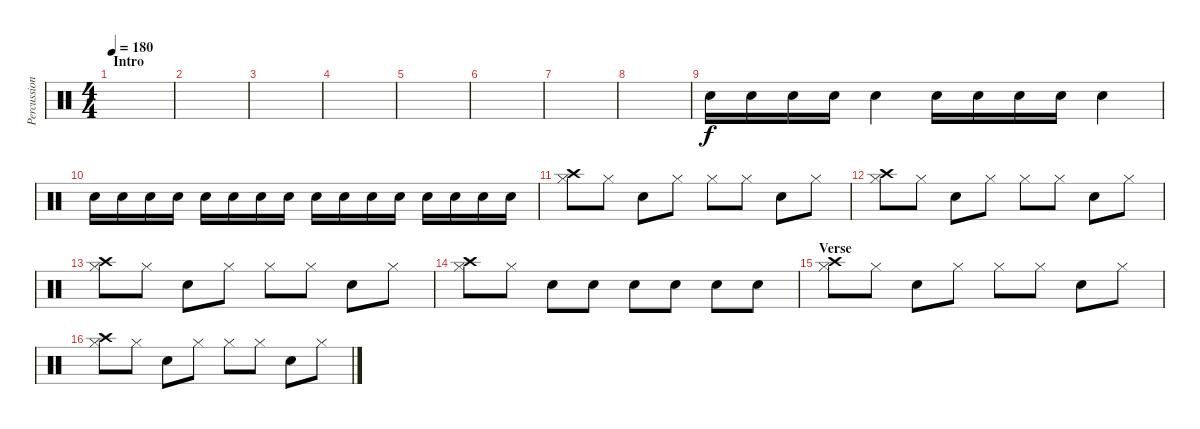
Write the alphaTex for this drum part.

\track ("Percussion" "Percussion") {instrument percussion}
\staff {score}
\articulation defaults
\ts (4 4)
\section ("" "Intro")
\tempo 180
\clef neutral
\ks c
|
|
|
|
|
|
|
|
"Electric Snare (hit)".16 "Electric Snare (hit)".16 "Electric Snare (hit)".16 "Electric Snare (hit)".16 "Electric Snare (hit)".4 "Electric Snare (hit)".16 "Electric Snare (hit)".16 "Electric Snare (hit)".16 "Electric Snare (hit)".16 "Electric Snare (hit)".4 |
"Electric Snare (hit)".16 "Electric Snare (hit)".16 "Electric Snare (hit)".16 "Electric Snare (hit)".16 "Electric Snare (hit)".16 "Electric Snare (hit)".16 "Electric Snare (hit)".16 "Electric Snare (hit)".16 "Electric Snare (hit)".16 "Electric Snare (hit)".16 "Electric Snare (hit)".16 "Electric Snare (hit)".16 "Electric Snare (hit)".16 "Electric Snare (hit)".16 "Electric Snare (hit)".16 "Electric Snare (hit)".16 |
("Crash high (hit)" "Hi-Hat (closed)").8 "Hi-Hat (closed)".8 "Electric Snare (hit)".8 "Hi-Hat (closed)".8 "Hi-Hat (closed)".8 "Hi-Hat (closed)".8 "Electric Snare (hit)".8 "Hi-Hat (closed)".8 |
("Crash high (hit)" "Hi-Hat (closed)").8 "Hi-Hat (closed)".8 "Electric Snare (hit)".8 "Hi-Hat (closed)".8 "Hi-Hat (closed)".8 "Hi-Hat (closed)".8 "Electric Snare (hit)".8 "Hi-Hat (closed)".8 |
("Crash high (hit)" "Hi-Hat (closed)").8 "Hi-Hat (closed)".8 "Electric Snare (hit)".8 "Hi-Hat (closed)".8 "Hi-Hat (closed)".8 "Hi-Hat (closed)".8 "Electric Snare (hit)".8 "Hi-Hat (closed)".8 |
("Crash high (hit)" "Hi-Hat (closed)").8 "Hi-Hat (closed)".8 "Electric Snare (hit)".8 "Electric Snare (hit)".8 "Electric Snare (hit)".8 "Electric Snare (hit)".8 "Electric Snare (hit)".8 "Electric Snare (hit)".8 |
\section ("" "Verse")
("Crash high (hit)" "Hi-Hat (closed)").8 "Hi-Hat (closed)".8 "Electric Snare (hit)".8 "Hi-Hat (closed)".8 "Hi-Hat (closed)".8 "Hi-Hat (closed)".8 "Electric Snare (hit)".8 "Hi-Hat (closed)".8 |
("Crash high (hit)" "Hi-Hat (closed)").8 "Hi-Hat (closed)".8 "Electric Snare (hit)".8 "Hi-Hat (closed)".8 "Hi-Hat (closed)".8 "Hi-Hat (closed)".8 "Electric Snare (hit)".8 "Hi-Hat (closed)".8
